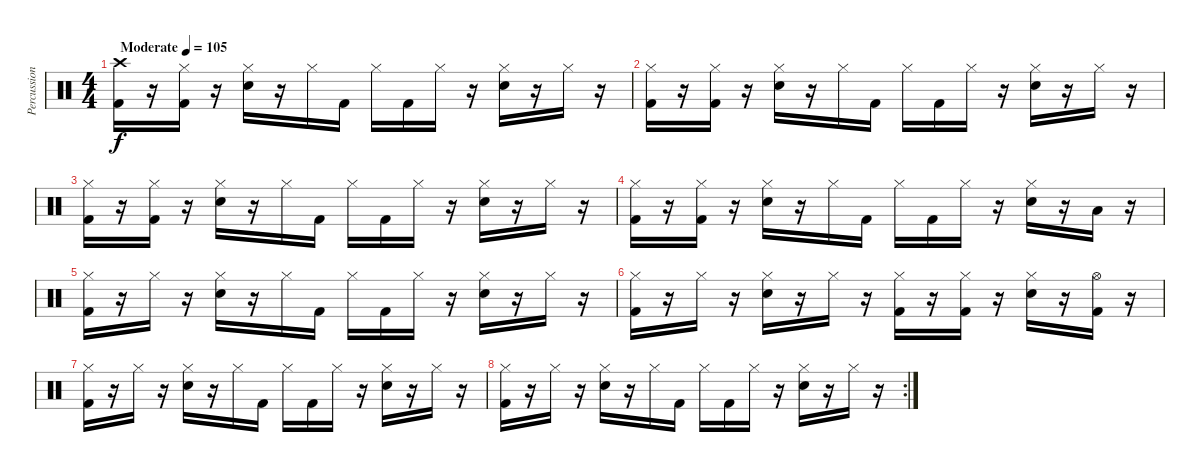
\track ("Percussion" "Percussion") {instrument percussion}
\staff {score}
\articulation defaults
\ts (4 4)
\tempo (105 "Moderate")
\clef neutral
\ks c
("Crash high (hit)" "Kick (hit) 2").16{dy f} r.16 ("Hi-Hat (closed)" "Kick (hit) 2").16 r.16 ("Hi-Hat (closed)" "Electric Snare (hit)").16 r.16 "Hi-Hat (closed)".16 "Kick (hit) 2".16 "Hi-Hat (closed)".16 "Kick (hit) 2".16 "Hi-Hat (closed)".16 r.16 ("Hi-Hat (closed)" "Electric Snare (hit)").16 r.16 "Hi-Hat (closed)".16 r.16 |
("Hi-Hat (closed)" "Kick (hit) 2").16 r.16 ("Hi-Hat (closed)" "Kick (hit) 2").16 r.16 ("Hi-Hat (closed)" "Electric Snare (hit)").16 r.16 "Hi-Hat (closed)".16 "Kick (hit) 2".16 "Hi-Hat (closed)".16 "Kick (hit) 2".16 "Hi-Hat (closed)".16 r.16 ("Hi-Hat (closed)" "Electric Snare (hit)").16 r.16 "Hi-Hat (closed)".16 r.16 |
("Hi-Hat (closed)" "Kick (hit) 2").16 r.16 ("Hi-Hat (closed)" "Kick (hit) 2").16 r.16 ("Hi-Hat (closed)" "Electric Snare (hit)").16 r.16 "Hi-Hat (closed)".16 "Kick (hit) 2".16 "Hi-Hat (closed)".16 "Kick (hit) 2".16 "Hi-Hat (closed)".16 r.16 ("Hi-Hat (closed)" "Electric Snare (hit)").16 r.16 "Hi-Hat (closed)".16 r.16 |
("Hi-Hat (closed)" "Kick (hit) 2").16 r.16 ("Hi-Hat (closed)" "Kick (hit) 2").16 r.16 ("Hi-Hat (closed)" "Electric Snare (hit)").16 r.16 "Hi-Hat (closed)".16 "Kick (hit) 2".16 "Hi-Hat (closed)".16 "Kick (hit) 2".16 "Hi-Hat (closed)".16 r.16 ("Hi-Hat (closed)" "Electric Snare (hit)").16 r.16 "Low Tom (hit)".16 r.16 |
("Hi-Hat (closed)" "Kick (hit) 2").16 r.16 "Hi-Hat (closed)".16 r.16 ("Hi-Hat (closed)" "Electric Snare (hit)").16 r.16 "Hi-Hat (closed)".16 "Kick (hit) 2".16 "Hi-Hat (closed)".16 "Kick (hit) 2".16 "Hi-Hat (closed)".16 r.16 ("Hi-Hat (closed)" "Electric Snare (hit)").16 r.16 "Hi-Hat (closed)".16 r.16 |
("Hi-Hat (closed)" "Kick (hit) 2").16 r.16 "Hi-Hat (closed)".16 r.16 ("Hi-Hat (closed)" "Electric Snare (hit)").16 r.16 "Hi-Hat (closed)".16 r.16 ("Hi-Hat (closed)" "Kick (hit) 2").16 r.16 ("Hi-Hat (closed)" "Kick (hit) 2").16 r.16 ("Hi-Hat (closed)" "Electric Snare (hit)").16 r.16 ("Hi-Hat (open)" "Kick (hit) 2").16 r.16 |
("Hi-Hat (closed)" "Kick (hit) 2").16 r.16 "Hi-Hat (closed)".16 r.16 ("Hi-Hat (closed)" "Electric Snare (hit)").16 r.16 "Hi-Hat (closed)".16 "Kick (hit) 2".16 "Hi-Hat (closed)".16 "Kick (hit) 2".16 "Hi-Hat (closed)".16 r.16 ("Hi-Hat (closed)" "Electric Snare (hit)").16 r.16 "Hi-Hat (closed)".16 r.16 |
\rc 2
("Hi-Hat (closed)" "Kick (hit) 2").16 r.16 "Hi-Hat (closed)".16 r.16 ("Hi-Hat (closed)" "Electric Snare (hit)").16 r.16 "Hi-Hat (closed)".16 "Kick (hit) 2".16 "Hi-Hat (closed)".16 "Kick (hit) 2".16 "Hi-Hat (closed)".16 r.16 ("Hi-Hat (closed)" "Electric Snare (hit)").16 r.16 "Hi-Hat (closed)".16 r.16
